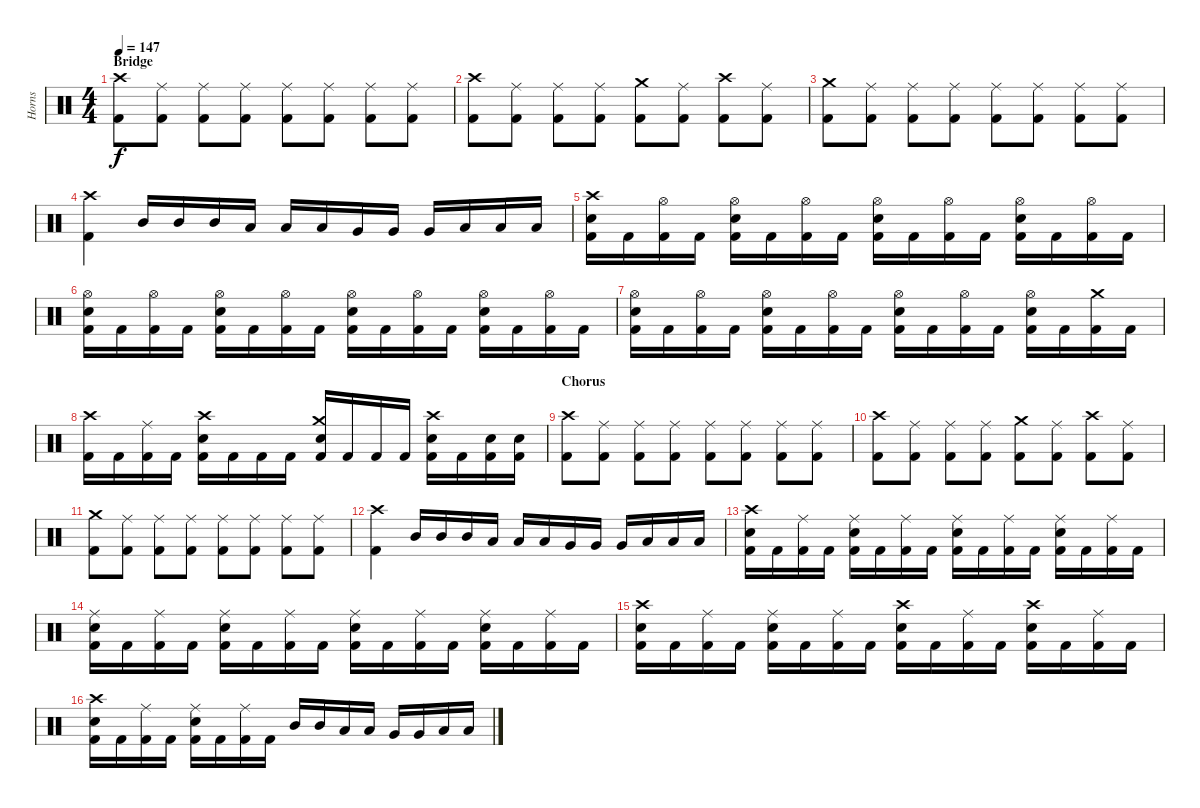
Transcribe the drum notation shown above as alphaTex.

\track ("Horns" "Horns") {instrument percussion}
\staff {score}
\articulation defaults
\ts (4 4)
\section ("" "Bridge")
\tempo 147
\clef neutral
\ks c
("Crash high (hit)" "Kick (hit) 2").8{dy f} ("Ride (middle)" "Kick (hit) 2").8 ("Ride (middle)" "Kick (hit) 2").8 ("Ride (middle)" "Kick (hit) 2").8 ("Ride (middle)" "Kick (hit) 2").8 ("Ride (middle)" "Kick (hit) 2").8 ("Ride (middle)" "Kick (hit) 2").8 ("Ride (middle)" "Kick (hit) 2").8 |
("Crash high (hit)" "Kick (hit) 2").8 ("Ride (middle)" "Kick (hit) 2").8 ("Ride (middle)" "Kick (hit) 2").8 ("Ride (middle)" "Kick (hit) 2").8 ("Crash medium (hit)" "Kick (hit) 2").8 ("Ride (middle)" "Kick (hit) 2").8 ("Crash high (hit)" "Kick (hit) 2").8 ("Ride (middle)" "Kick (hit) 2").8 |
("Crash medium (hit)" "Kick (hit) 2").8 ("Ride (middle)" "Kick (hit) 2").8 ("Ride (middle)" "Kick (hit) 2").8 ("Ride (middle)" "Kick (hit) 2").8 ("Ride (middle)" "Kick (hit) 2").8 ("Ride (middle)" "Kick (hit) 2").8 ("Ride (middle)" "Kick (hit) 2").8 ("Ride (middle)" "Kick (hit) 2").8 |
("Crash high (hit)" "Kick (hit) 2").4 "Mid Tom (hit)".16 "Mid Tom (hit)".16 "Mid Tom (hit)".16 "Low Tom (hit)".16 "Low Tom (hit)".16 "Low Tom (hit)".16 "Very Low Tom (hit)".16 "Very Low Tom (hit)".16 "Very Low Tom (hit)".16 "Low Floor Tom (hit)".16 "Low Floor Tom (hit)".16 "Low Floor Tom (hit)".16 |
("Crash high (hit)" "Snare (hit) 2" "Kick (hit) 2").16 "Kick (hit) 2".16 ("Hi-Hat (open)" "Kick (hit) 2").16 "Kick (hit) 2".16 ("Hi-Hat (open)" "Snare (hit) 2" "Kick (hit) 2").16 "Kick (hit) 2".16 ("Hi-Hat (open)" "Kick (hit) 2").16 "Kick (hit) 2".16 ("Hi-Hat (open)" "Snare (hit) 2" "Kick (hit) 2").16 "Kick (hit) 2".16 ("Hi-Hat (open)" "Kick (hit) 2").16 "Kick (hit) 2".16 ("Hi-Hat (open)" "Snare (hit) 2" "Kick (hit) 2").16 "Kick (hit) 2".16 ("Hi-Hat (open)" "Kick (hit) 2").16 "Kick (hit) 2".16 |
("Hi-Hat (open)" "Snare (hit) 2" "Kick (hit) 2").16 "Kick (hit) 2".16 ("Hi-Hat (open)" "Kick (hit) 2").16 "Kick (hit) 2".16 ("Hi-Hat (open)" "Snare (hit) 2" "Kick (hit) 2").16 "Kick (hit) 2".16 ("Hi-Hat (open)" "Kick (hit) 2").16 "Kick (hit) 2".16 ("Hi-Hat (open)" "Snare (hit) 2" "Kick (hit) 2").16 "Kick (hit) 2".16 ("Hi-Hat (open)" "Kick (hit) 2").16 "Kick (hit) 2".16 ("Hi-Hat (open)" "Snare (hit) 2" "Kick (hit) 2").16 "Kick (hit) 2".16 ("Hi-Hat (open)" "Kick (hit) 2").16 "Kick (hit) 2".16 |
("Hi-Hat (open)" "Snare (hit) 2" "Kick (hit) 2").16 "Kick (hit) 2".16 ("Hi-Hat (open)" "Kick (hit) 2").16 "Kick (hit) 2".16 ("Hi-Hat (open)" "Snare (hit) 2" "Kick (hit) 2").16 "Kick (hit) 2".16 ("Hi-Hat (open)" "Kick (hit) 2").16 "Kick (hit) 2".16 ("Hi-Hat (open)" "Snare (hit) 2" "Kick (hit) 2").16 "Kick (hit) 2".16 ("Hi-Hat (open)" "Kick (hit) 2").16 "Kick (hit) 2".16 ("Hi-Hat (open)" "Snare (hit) 2" "Kick (hit) 2").16 "Kick (hit) 2".16 ("Crash medium (hit)" "Kick (hit) 2").16 "Kick (hit) 2".16 |
("Crash high (hit)" "Kick (hit) 2").16 "Kick (hit) 2".16 ("Ride (middle)" "Kick (hit) 2").16 "Kick (hit) 2".16 ("Crash high (hit)" "Snare (hit) 2" "Kick (hit) 2").16 "Kick (hit) 2".16 "Kick (hit) 2".16 "Kick (hit) 2".16 ("Crash medium (hit)" "Snare (hit) 2" "Kick (hit) 2").16 "Kick (hit) 2".16 "Kick (hit) 2".16 "Kick (hit) 2".16 ("Crash high (hit)" "Snare (hit) 2" "Kick (hit) 2").16 "Kick (hit) 2".16 ("Snare (hit) 2" "Kick (hit) 2").16 ("Snare (hit) 2" "Kick (hit) 2").16 |
\section ("" "Chorus")
("Crash high (hit)" "Kick (hit) 2").8 ("Ride (middle)" "Kick (hit) 2").8 ("Ride (middle)" "Kick (hit) 2").8 ("Ride (middle)" "Kick (hit) 2").8 ("Ride (middle)" "Kick (hit) 2").8 ("Ride (middle)" "Kick (hit) 2").8 ("Ride (middle)" "Kick (hit) 2").8 ("Ride (middle)" "Kick (hit) 2").8 |
("Crash high (hit)" "Kick (hit) 2").8 ("Ride (middle)" "Kick (hit) 2").8 ("Ride (middle)" "Kick (hit) 2").8 ("Ride (middle)" "Kick (hit) 2").8 ("Crash medium (hit)" "Kick (hit) 2").8 ("Ride (middle)" "Kick (hit) 2").8 ("Crash high (hit)" "Kick (hit) 2").8 ("Ride (middle)" "Kick (hit) 2").8 |
("Crash medium (hit)" "Kick (hit) 2").8 ("Ride (middle)" "Kick (hit) 2").8 ("Ride (middle)" "Kick (hit) 2").8 ("Ride (middle)" "Kick (hit) 2").8 ("Ride (middle)" "Kick (hit) 2").8 ("Ride (middle)" "Kick (hit) 2").8 ("Ride (middle)" "Kick (hit) 2").8 ("Ride (middle)" "Kick (hit) 2").8 |
("Crash high (hit)" "Kick (hit) 2").4 "Mid Tom (hit)".16 "Mid Tom (hit)".16 "Mid Tom (hit)".16 "Low Tom (hit)".16 "Low Tom (hit)".16 "Low Tom (hit)".16 "Very Low Tom (hit)".16 "Very Low Tom (hit)".16 "Very Low Tom (hit)".16 "Low Floor Tom (hit)".16 "Low Floor Tom (hit)".16 "Low Floor Tom (hit)".16 |
("Crash high (hit)" "Snare (hit) 2" "Kick (hit) 2").16 "Kick (hit) 2".16 ("Ride (middle)" "Kick (hit) 2").16 "Kick (hit) 2".16 ("Ride (middle)" "Snare (hit) 2" "Kick (hit) 2").16 "Kick (hit) 2".16 ("Ride (middle)" "Kick (hit) 2").16 "Kick (hit) 2".16 ("Ride (middle)" "Snare (hit) 2" "Kick (hit) 2").16 "Kick (hit) 2".16 ("Ride (middle)" "Kick (hit) 2").16 "Kick (hit) 2".16 ("Ride (middle)" "Snare (hit) 2" "Kick (hit) 2").16 "Kick (hit) 2".16 ("Ride (middle)" "Kick (hit) 2").16 "Kick (hit) 2".16 |
("Ride (middle)" "Snare (hit) 2" "Kick (hit) 2").16 "Kick (hit) 2".16 ("Ride (middle)" "Kick (hit) 2").16 "Kick (hit) 2".16 ("Ride (middle)" "Snare (hit) 2" "Kick (hit) 2").16 "Kick (hit) 2".16 ("Ride (middle)" "Kick (hit) 2").16 "Kick (hit) 2".16 ("Ride (middle)" "Snare (hit) 2" "Kick (hit) 2").16 "Kick (hit) 2".16 ("Ride (middle)" "Kick (hit) 2").16 "Kick (hit) 2".16 ("Ride (middle)" "Snare (hit) 2" "Kick (hit) 2").16 "Kick (hit) 2".16 ("Ride (middle)" "Kick (hit) 2").16 "Kick (hit) 2".16 |
("Crash high (hit)" "Snare (hit) 2" "Kick (hit) 2").16 "Kick (hit) 2".16 ("Ride (middle)" "Kick (hit) 2").16 "Kick (hit) 2".16 ("Ride (middle)" "Snare (hit) 2" "Kick (hit) 2").16 "Kick (hit) 2".16 ("Ride (middle)" "Kick (hit) 2").16 "Kick (hit) 2".16 ("Crash high (hit)" "Snare (hit) 2" "Kick (hit) 2").16 "Kick (hit) 2".16 ("Ride (middle)" "Kick (hit) 2").16 "Kick (hit) 2".16 ("Crash high (hit)" "Snare (hit) 2" "Kick (hit) 2").16 "Kick (hit) 2".16 ("Ride (middle)" "Kick (hit) 2").16 "Kick (hit) 2".16 |
("Crash high (hit)" "Snare (hit) 2" "Kick (hit) 2").16 "Kick (hit) 2".16 ("Ride (middle)" "Kick (hit) 2").16 "Kick (hit) 2".16 ("Ride (middle)" "Snare (hit) 2" "Kick (hit) 2").16 "Kick (hit) 2".16 ("Ride (middle)" "Kick (hit) 2").16 "Kick (hit) 2".16 "Mid Tom (hit)".16 "Mid Tom (hit)".16 "Low Tom (hit)".16 "Low Tom (hit)".16 "Very Low Tom (hit)".16 "Very Low Tom (hit)".16 "Low Floor Tom (hit)".16 "Low Floor Tom (hit)".16
